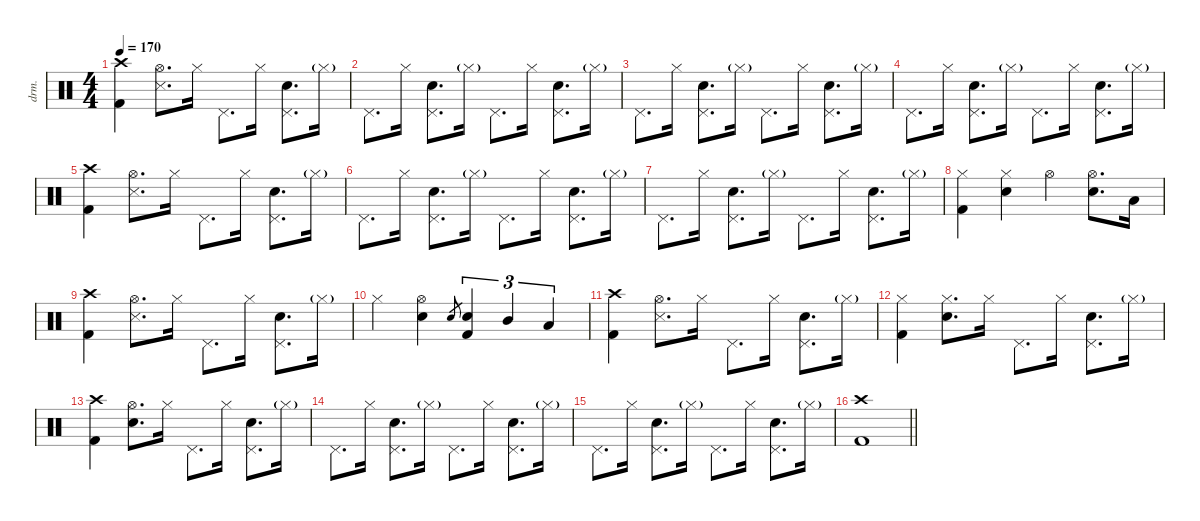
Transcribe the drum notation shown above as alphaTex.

\defaultSystemsLayout 4
\hideDynamics
\bracketExtendMode nobrackets
\otherSystemsTrackNameOrientation horizontal
\track ("Drums" "drm.") {instrument percussion}
\staff {score}
\articulation defaults
\ts (4 4)
\tempo 170
\clef neutral
\ks c
("Crash high (hit)" "Kick (hit) 2").4{dy f beam Down} ("Hi-Hat (open)" "Snare (side stick) 3").8{d beam Down} "Hi-Hat (closed)".16{beam Down} "Pedal Hi-Hat (hit)".8{d beam Down} "Hi-Hat (closed)".16{beam Down} ("Pedal Hi-Hat (hit)" "Snare (hit) 2").8{d beam Down} "Hi-Hat (closed)"{g}.16{dy mf beam Down} |
"Pedal Hi-Hat (hit)".8{d dy f beam Down} "Hi-Hat (closed)".16{beam Down} ("Pedal Hi-Hat (hit)" "Snare (hit) 2").8{d beam Down} "Hi-Hat (closed)"{g}.16{dy mf beam Down} "Pedal Hi-Hat (hit)".8{d dy f beam Down} "Hi-Hat (closed)".16{beam Down} ("Pedal Hi-Hat (hit)" "Snare (hit) 2").8{d beam Down} "Hi-Hat (closed)"{g}.16{dy mf beam Down} |
"Pedal Hi-Hat (hit)".8{d dy f beam Down} "Hi-Hat (closed)".16{beam Down} ("Pedal Hi-Hat (hit)" "Snare (hit) 2").8{d beam Down} "Hi-Hat (closed)"{g}.16{dy mf beam Down} "Pedal Hi-Hat (hit)".8{d dy f beam Down} "Hi-Hat (closed)".16{beam Down} ("Pedal Hi-Hat (hit)" "Snare (hit) 2").8{d beam Down} "Hi-Hat (closed)"{g}.16{dy mf beam Down} |
"Pedal Hi-Hat (hit)".8{d dy f beam Down} "Hi-Hat (closed)".16{beam Down} ("Pedal Hi-Hat (hit)" "Snare (hit) 2").8{d beam Down} "Hi-Hat (closed)"{g}.16{dy mf beam Down} "Pedal Hi-Hat (hit)".8{d dy f beam Down} "Hi-Hat (closed)".16{beam Down} ("Pedal Hi-Hat (hit)" "Snare (hit) 2").8{d beam Down} "Hi-Hat (closed)"{g}.16{dy mf beam Down} |
("Crash high (hit)" "Kick (hit) 2").4{dy f beam Down} ("Hi-Hat (open)" "Snare (side stick) 3").8{d beam Down} "Hi-Hat (closed)".16{beam Down} "Pedal Hi-Hat (hit)".8{d beam Down} "Hi-Hat (closed)".16{beam Down} ("Pedal Hi-Hat (hit)" "Snare (hit) 2").8{d beam Down} "Hi-Hat (closed)"{g}.16{dy mf beam Down} |
"Pedal Hi-Hat (hit)".8{d dy f beam Down} "Hi-Hat (closed)".16{beam Down} ("Pedal Hi-Hat (hit)" "Snare (hit) 2").8{d beam Down} "Hi-Hat (closed)"{g}.16{dy mf beam Down} "Pedal Hi-Hat (hit)".8{d dy f beam Down} "Hi-Hat (closed)".16{beam Down} ("Pedal Hi-Hat (hit)" "Snare (hit) 2").8{d beam Down} "Hi-Hat (closed)"{g}.16{dy mf beam Down} |
"Pedal Hi-Hat (hit)".8{d dy f beam Down} "Hi-Hat (closed)".16{beam Down} ("Pedal Hi-Hat (hit)" "Snare (hit) 2").8{d beam Down} "Hi-Hat (closed)"{g}.16{dy mf beam Down} "Pedal Hi-Hat (hit)".8{d dy f beam Down} "Hi-Hat (closed)".16{beam Down} ("Pedal Hi-Hat (hit)" "Snare (hit) 2").8{d beam Down} "Hi-Hat (closed)"{g}.16{dy mf beam Down} |
("Hi-Hat (closed)" "Kick (hit) 2").4{dy f beam Down} ("Hi-Hat (closed)" "Snare (hit) 2").4{beam Down} "Hi-Hat (open)".4{beam Down} ("Hi-Hat (open)" "Snare (hit) 2").8{d beam Down} "Low Tom (hit)".16{beam Down} |
("Crash high (hit)" "Kick (hit) 2").4{beam Down} ("Hi-Hat (open)" "Snare (side stick) 3").8{d beam Down} "Hi-Hat (closed)".16{beam Down} "Pedal Hi-Hat (hit)".8{d beam Down} "Hi-Hat (closed)".16{beam Down} ("Pedal Hi-Hat (hit)" "Snare (hit) 2").8{d beam Down} "Hi-Hat (closed)"{g}.16{dy mf beam Down} |
"Hi-Hat (closed)".4{dy f beam Down} ("Hi-Hat (open)" "Snare (hit) 2").4{beam Down} "Snare (hit) 2".8{gr dy mf beam Up} ("Snare (hit) 2" "Kick (hit) 2").4{tu (3 2) dy f beam Up} "Mid Tom (hit)".4{tu (3 2) beam Up} "Low Tom (hit)".4{tu (3 2) beam Up} |
("Crash high (hit)" "Kick (hit) 2").4{beam Down} ("Hi-Hat (open)" "Snare (side stick) 3").8{d beam Down} "Hi-Hat (closed)".16{beam Down} "Pedal Hi-Hat (hit)".8{d beam Down} "Hi-Hat (closed)".16{beam Down} ("Pedal Hi-Hat (hit)" "Snare (hit) 2").8{d beam Down} "Hi-Hat (closed)"{g}.16{dy mf beam Down} |
("Hi-Hat (closed)" "Kick (hit) 2").4{dy f beam Down} ("Hi-Hat (closed)" "Snare (hit) 2").8{d beam Down} "Hi-Hat (closed)".16{beam Down} "Pedal Hi-Hat (hit)".8{d beam Down} "Hi-Hat (closed)".16{beam Down} ("Pedal Hi-Hat (hit)" "Snare (hit) 2").8{d beam Down} "Hi-Hat (closed)"{g}.16{dy mf beam Down} |
("Crash high (hit)" "Kick (hit) 2").4{dy f beam Down} ("Hi-Hat (open)" "Snare (hit) 2").8{d beam Down} "Hi-Hat (closed)".16{beam Down} "Pedal Hi-Hat (hit)".8{d beam Down} "Hi-Hat (closed)".16{beam Down} ("Pedal Hi-Hat (hit)" "Snare (hit) 2").8{d beam Down} "Hi-Hat (closed)"{g}.16{dy mf beam Down} |
"Pedal Hi-Hat (hit)".8{d dy f beam Down} "Hi-Hat (closed)".16{beam Down} ("Pedal Hi-Hat (hit)" "Snare (hit) 2").8{d beam Down} "Hi-Hat (closed)"{g}.16{dy mf beam Down} "Pedal Hi-Hat (hit)".8{d dy f beam Down} "Hi-Hat (closed)".16{beam Down} ("Pedal Hi-Hat (hit)" "Snare (hit) 2").8{d beam Down} "Hi-Hat (closed)"{g}.16{dy mf beam Down} |
"Pedal Hi-Hat (hit)".8{d dy f beam Down} "Hi-Hat (closed)".16{beam Down} ("Pedal Hi-Hat (hit)" "Snare (hit) 2").8{d beam Down} "Hi-Hat (closed)"{g}.16{dy mf beam Down} "Pedal Hi-Hat (hit)".8{d dy f beam Down} "Hi-Hat (closed)".16{beam Down} ("Pedal Hi-Hat (hit)" "Snare (hit) 2").8{d beam Down} "Hi-Hat (closed)"{g}.16{dy mf beam Down} |
\barLineRight lightlight
("Crash high (hit)" "Kick (hit) 2").1{beam Down}
